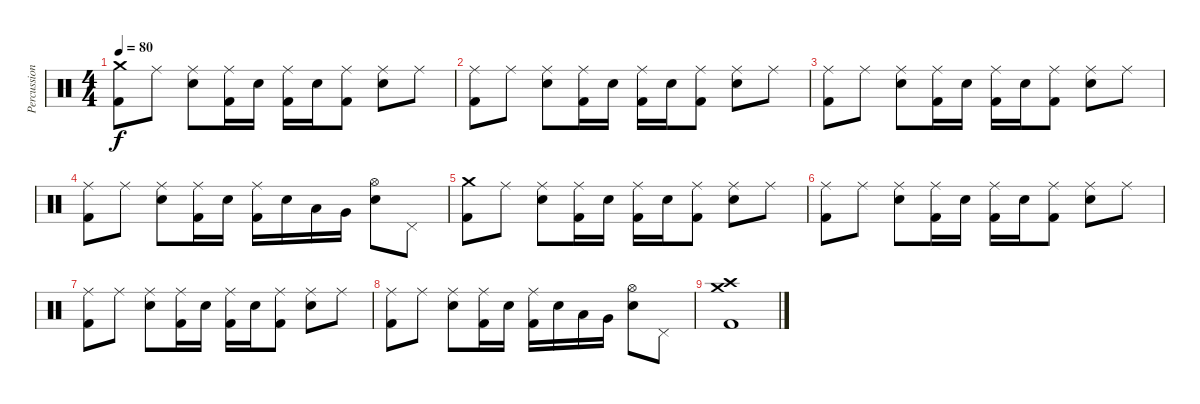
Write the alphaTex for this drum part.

\track ("Percussion" "Percussion") {instrument percussion}
\staff {score}
\articulation defaults
\ts (4 4)
\tempo 80
\clef neutral
\ks c
("Crash medium (hit)" "Kick (hit) 2").8{dy f volume 7} "Ride (middle)".8 ("Ride (middle)" "Electric Snare (hit)").8 ("Ride (middle)" "Kick (hit) 2").16 "Electric Snare (hit)".16 ("Ride (middle)" "Kick (hit) 2").16 "Electric Snare (hit)".16 ("Ride (middle)" "Kick (hit) 2").8 ("Ride (middle)" "Electric Snare (hit)").8 "Ride (middle)".8 |
("Ride (middle)" "Kick (hit) 2").8 "Ride (middle)".8 ("Ride (middle)" "Electric Snare (hit)").8 ("Ride (middle)" "Kick (hit) 2").16 "Electric Snare (hit)".16 ("Ride (middle)" "Kick (hit) 2").16 "Electric Snare (hit)".16 ("Ride (middle)" "Kick (hit) 2").8 ("Ride (middle)" "Electric Snare (hit)").8 "Ride (middle)".8 |
("Ride (middle)" "Kick (hit) 2").8 "Ride (middle)".8 ("Ride (middle)" "Electric Snare (hit)").8 ("Ride (middle)" "Kick (hit) 2").16 "Electric Snare (hit)".16 ("Ride (middle)" "Kick (hit) 2").16 "Electric Snare (hit)".16 ("Ride (middle)" "Kick (hit) 2").8 ("Ride (middle)" "Electric Snare (hit)").8 "Ride (middle)".8 |
("Ride (middle)" "Kick (hit) 2").8 "Ride (middle)".8 ("Ride (middle)" "Electric Snare (hit)").8 ("Ride (middle)" "Kick (hit) 2").16 "Electric Snare (hit)".16 ("Ride (middle)" "Kick (hit) 2").16 "Electric Snare (hit)".16 "Low Tom (hit)".16 "Very Low Tom (hit)".16 ("Hi-Hat (open)" "Electric Snare (hit)").8 "Pedal Hi-Hat (hit)".8 |
("Crash medium (hit)" "Kick (hit) 2").8{volume 7} "Ride (middle)".8 ("Ride (middle)" "Electric Snare (hit)").8 ("Ride (middle)" "Kick (hit) 2").16 "Electric Snare (hit)".16 ("Ride (middle)" "Kick (hit) 2").16 "Electric Snare (hit)".16 ("Ride (middle)" "Kick (hit) 2").8 ("Ride (middle)" "Electric Snare (hit)").8 "Ride (middle)".8 |
("Ride (middle)" "Kick (hit) 2").8 "Ride (middle)".8 ("Ride (middle)" "Electric Snare (hit)").8 ("Ride (middle)" "Kick (hit) 2").16 "Electric Snare (hit)".16 ("Ride (middle)" "Kick (hit) 2").16 "Electric Snare (hit)".16 ("Ride (middle)" "Kick (hit) 2").8 ("Ride (middle)" "Electric Snare (hit)").8 "Ride (middle)".8 |
("Ride (middle)" "Kick (hit) 2").8 "Ride (middle)".8 ("Ride (middle)" "Electric Snare (hit)").8 ("Ride (middle)" "Kick (hit) 2").16 "Electric Snare (hit)".16 ("Ride (middle)" "Kick (hit) 2").16 "Electric Snare (hit)".16 ("Ride (middle)" "Kick (hit) 2").8 ("Ride (middle)" "Electric Snare (hit)").8 "Ride (middle)".8 |
("Ride (middle)" "Kick (hit) 2").8 "Ride (middle)".8 ("Ride (middle)" "Electric Snare (hit)").8 ("Ride (middle)" "Kick (hit) 2").16 "Electric Snare (hit)".16 ("Ride (middle)" "Kick (hit) 2").16 "Electric Snare (hit)".16 "Low Tom (hit)".16 "Very Low Tom (hit)".16 ("Hi-Hat (open)" "Electric Snare (hit)").8 "Pedal Hi-Hat (hit)".8 |
("Crash medium (hit)" "Crash high (hit)" "Kick (hit) 2").1
